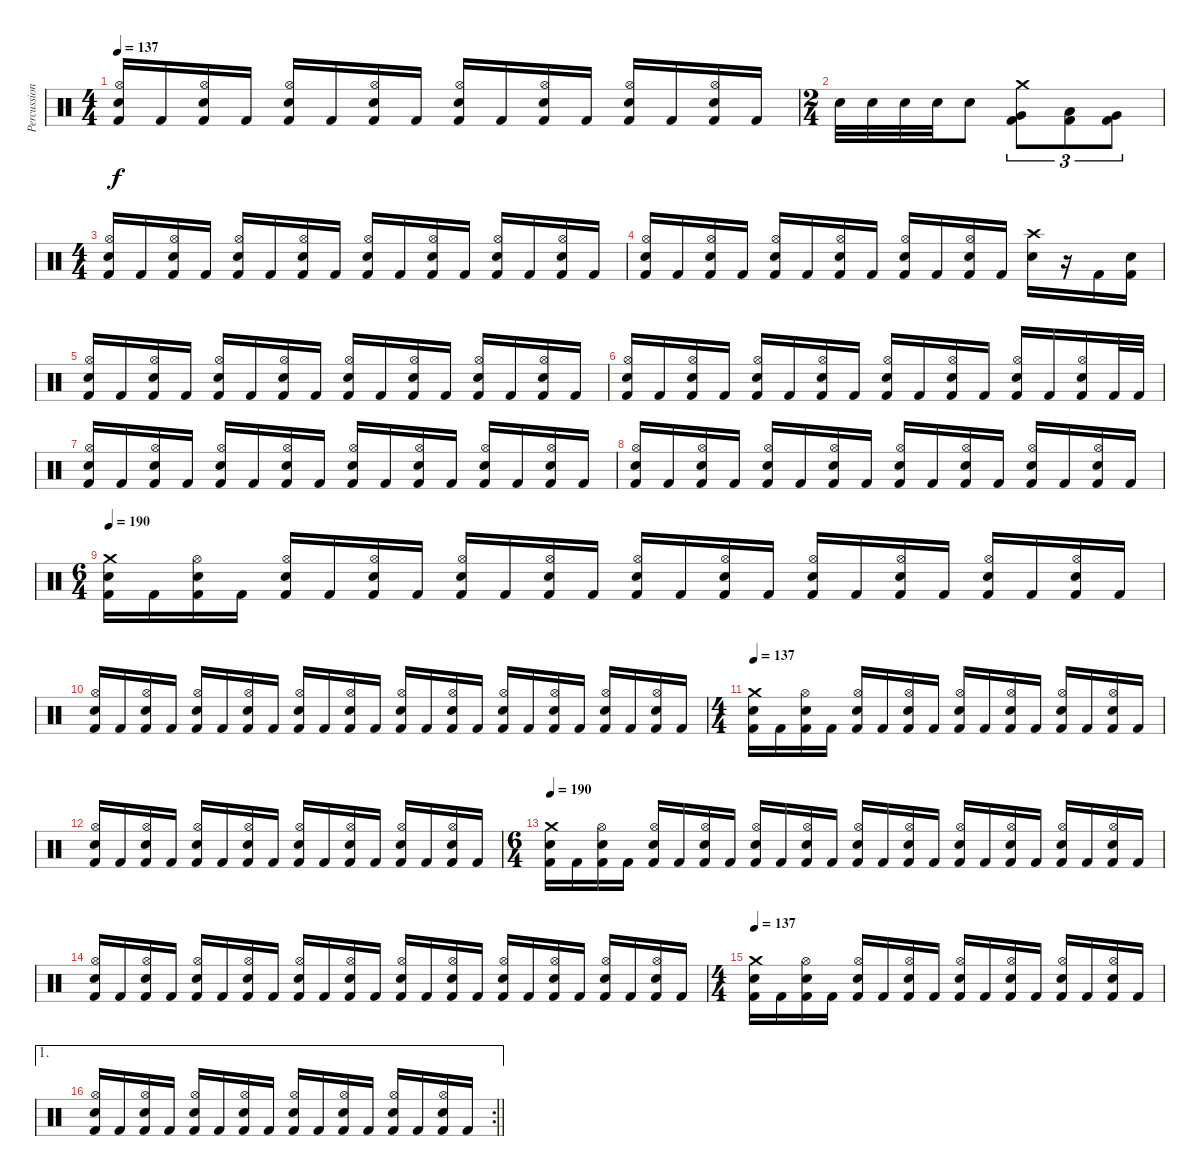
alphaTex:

\track ("Percussion" "Percussion") {instrument percussion}
\staff {score}
\articulation defaults
\ts (4 4)
\tempo 137
\clef neutral
\ks c
("Kick (hit) 2" "Hi-Hat (open)" "Snare (hit) 2").16{dy f} "Kick (hit) 2".16 ("Kick (hit) 2" "Hi-Hat (open)" "Snare (hit) 2").16 "Kick (hit) 2".16 ("Kick (hit) 2" "Hi-Hat (open)" "Snare (hit) 2").16 "Kick (hit) 2".16 ("Kick (hit) 2" "Hi-Hat (open)" "Snare (hit) 2").16 "Kick (hit) 2".16 ("Kick (hit) 2" "Hi-Hat (open)" "Snare (hit) 2").16 "Kick (hit) 2".16 ("Kick (hit) 2" "Hi-Hat (open)" "Snare (hit) 2").16 "Kick (hit) 2".16 ("Kick (hit) 2" "Hi-Hat (open)" "Snare (hit) 2").16 "Kick (hit) 2".16 ("Kick (hit) 2" "Hi-Hat (open)" "Snare (hit) 2").16 "Kick (hit) 2".16 |
\ts (2 4)
"Snare (hit) 2".32 "Snare (hit) 2".32 "Snare (hit) 2".32 "Snare (hit) 2".32 "Snare (hit) 2".8 ("Kick (hit) 2" "Very Low Tom (hit)" "Crash medium (hit)").8{tu (3 2)} ("Kick (hit) 2" "Low Floor Tom (hit)").8{tu (3 2)} ("Kick (hit) 2" "Very Low Tom (hit)").8{tu (3 2)} |
\ts (4 4)
("Kick (hit) 2" "Hi-Hat (open)" "Snare (hit) 2").16 "Kick (hit) 2".16 ("Kick (hit) 2" "Hi-Hat (open)" "Snare (hit) 2").16 "Kick (hit) 2".16 ("Kick (hit) 2" "Hi-Hat (open)" "Snare (hit) 2").16 "Kick (hit) 2".16 ("Kick (hit) 2" "Hi-Hat (open)" "Snare (hit) 2").16 "Kick (hit) 2".16 ("Kick (hit) 2" "Hi-Hat (open)" "Snare (hit) 2").16 "Kick (hit) 2".16 ("Kick (hit) 2" "Hi-Hat (open)" "Snare (hit) 2").16 "Kick (hit) 2".16 ("Kick (hit) 2" "Hi-Hat (open)" "Snare (hit) 2").16 "Kick (hit) 2".16 ("Kick (hit) 2" "Hi-Hat (open)" "Snare (hit) 2").16 "Kick (hit) 2".16 |
("Kick (hit) 2" "Hi-Hat (open)" "Snare (hit) 2").16 "Kick (hit) 2".16 ("Kick (hit) 2" "Hi-Hat (open)" "Snare (hit) 2").16 "Kick (hit) 2".16 ("Kick (hit) 2" "Hi-Hat (open)" "Snare (hit) 2").16 "Kick (hit) 2".16 ("Kick (hit) 2" "Hi-Hat (open)" "Snare (hit) 2").16 "Kick (hit) 2".16 ("Kick (hit) 2" "Hi-Hat (open)" "Snare (hit) 2").16 "Kick (hit) 2".16 ("Kick (hit) 2" "Hi-Hat (open)" "Snare (hit) 2").16 "Kick (hit) 2".16 ("Crash high (hit)" "Snare (hit) 2").16 r.16 "Kick (hit) 2".16 ("Kick (hit) 2" "Snare (hit) 2").16 |
("Kick (hit) 2" "Hi-Hat (open)" "Snare (hit) 2").16 "Kick (hit) 2".16 ("Kick (hit) 2" "Hi-Hat (open)" "Snare (hit) 2").16 "Kick (hit) 2".16 ("Kick (hit) 2" "Hi-Hat (open)" "Snare (hit) 2").16 "Kick (hit) 2".16 ("Kick (hit) 2" "Hi-Hat (open)" "Snare (hit) 2").16 "Kick (hit) 2".16 ("Kick (hit) 2" "Hi-Hat (open)" "Snare (hit) 2").16 "Kick (hit) 2".16 ("Kick (hit) 2" "Hi-Hat (open)" "Snare (hit) 2").16 "Kick (hit) 2".16 ("Kick (hit) 2" "Hi-Hat (open)" "Snare (hit) 2").16 "Kick (hit) 2".16 ("Kick (hit) 2" "Hi-Hat (open)" "Snare (hit) 2").16 "Kick (hit) 2".16 |
("Kick (hit) 2" "Hi-Hat (open)" "Snare (hit) 2").16 "Kick (hit) 2".16 ("Kick (hit) 2" "Hi-Hat (open)" "Snare (hit) 2").16 "Kick (hit) 2".16 ("Kick (hit) 2" "Hi-Hat (open)" "Snare (hit) 2").16 "Kick (hit) 2".16 ("Kick (hit) 2" "Hi-Hat (open)" "Snare (hit) 2").16 "Kick (hit) 2".16 ("Kick (hit) 2" "Hi-Hat (open)" "Snare (hit) 2").16 "Kick (hit) 2".16 ("Kick (hit) 2" "Hi-Hat (open)" "Snare (hit) 2").16 "Kick (hit) 2".16 ("Kick (hit) 2" "Hi-Hat (open)" "Snare (hit) 2").16 "Kick (hit) 2".16 ("Kick (hit) 2" "Hi-Hat (open)" "Snare (hit) 2").16 "Kick (hit) 2".32 "Kick (hit) 2".32 |
("Kick (hit) 2" "Hi-Hat (open)" "Snare (hit) 2").16 "Kick (hit) 2".16 ("Kick (hit) 2" "Hi-Hat (open)" "Snare (hit) 2").16 "Kick (hit) 2".16 ("Kick (hit) 2" "Hi-Hat (open)" "Snare (hit) 2").16 "Kick (hit) 2".16 ("Kick (hit) 2" "Hi-Hat (open)" "Snare (hit) 2").16 "Kick (hit) 2".16 ("Kick (hit) 2" "Hi-Hat (open)" "Snare (hit) 2").16 "Kick (hit) 2".16 ("Kick (hit) 2" "Hi-Hat (open)" "Snare (hit) 2").16 "Kick (hit) 2".16 ("Kick (hit) 2" "Hi-Hat (open)" "Snare (hit) 2").16 "Kick (hit) 2".16 ("Kick (hit) 2" "Hi-Hat (open)" "Snare (hit) 2").16 "Kick (hit) 2".16 |
("Kick (hit) 2" "Hi-Hat (open)" "Snare (hit) 2").16 "Kick (hit) 2".16 ("Kick (hit) 2" "Hi-Hat (open)" "Snare (hit) 2").16 "Kick (hit) 2".16 ("Kick (hit) 2" "Hi-Hat (open)" "Snare (hit) 2").16 "Kick (hit) 2".16 ("Kick (hit) 2" "Hi-Hat (open)" "Snare (hit) 2").16 "Kick (hit) 2".16 ("Kick (hit) 2" "Hi-Hat (open)" "Snare (hit) 2").16 "Kick (hit) 2".16 ("Kick (hit) 2" "Hi-Hat (open)" "Snare (hit) 2").16 "Kick (hit) 2".16 ("Kick (hit) 2" "Hi-Hat (open)" "Snare (hit) 2").16 "Kick (hit) 2".16 ("Kick (hit) 2" "Hi-Hat (open)" "Snare (hit) 2").16 "Kick (hit) 2".16 |
\ts (6 4)
\tempo 190
("Kick (hit) 2" "Crash medium (hit)" "Snare (hit) 2").16 "Kick (hit) 2".16 ("Kick (hit) 2" "Hi-Hat (open)" "Snare (hit) 2").16 "Kick (hit) 2".16 ("Kick (hit) 2" "Hi-Hat (open)" "Snare (hit) 2").16 "Kick (hit) 2".16 ("Kick (hit) 2" "Hi-Hat (open)" "Snare (hit) 2").16 "Kick (hit) 2".16 ("Kick (hit) 2" "Hi-Hat (open)" "Snare (hit) 2").16 "Kick (hit) 2".16 ("Kick (hit) 2" "Hi-Hat (open)" "Snare (hit) 2").16 "Kick (hit) 2".16 ("Kick (hit) 2" "Hi-Hat (open)" "Snare (hit) 2").16 "Kick (hit) 2".16 ("Kick (hit) 2" "Hi-Hat (open)" "Snare (hit) 2").16 "Kick (hit) 2".16 ("Kick (hit) 2" "Hi-Hat (open)" "Snare (hit) 2").16 "Kick (hit) 2".16 ("Kick (hit) 2" "Hi-Hat (open)" "Snare (hit) 2").16 "Kick (hit) 2".16 ("Kick (hit) 2" "Hi-Hat (open)" "Snare (hit) 2").16 "Kick (hit) 2".16 ("Kick (hit) 2" "Hi-Hat (open)" "Snare (hit) 2").16 "Kick (hit) 2".16 |
("Kick (hit) 2" "Hi-Hat (open)" "Snare (hit) 2").16 "Kick (hit) 2".16 ("Kick (hit) 2" "Hi-Hat (open)" "Snare (hit) 2").16 "Kick (hit) 2".16 ("Kick (hit) 2" "Hi-Hat (open)" "Snare (hit) 2").16 "Kick (hit) 2".16 ("Kick (hit) 2" "Hi-Hat (open)" "Snare (hit) 2").16 "Kick (hit) 2".16 ("Kick (hit) 2" "Hi-Hat (open)" "Snare (hit) 2").16 "Kick (hit) 2".16 ("Kick (hit) 2" "Hi-Hat (open)" "Snare (hit) 2").16 "Kick (hit) 2".16 ("Kick (hit) 2" "Hi-Hat (open)" "Snare (hit) 2").16 "Kick (hit) 2".16 ("Kick (hit) 2" "Hi-Hat (open)" "Snare (hit) 2").16 "Kick (hit) 2".16 ("Kick (hit) 2" "Hi-Hat (open)" "Snare (hit) 2").16 "Kick (hit) 2".16 ("Kick (hit) 2" "Hi-Hat (open)" "Snare (hit) 2").16 "Kick (hit) 2".16 ("Kick (hit) 2" "Hi-Hat (open)" "Snare (hit) 2").16 "Kick (hit) 2".16 ("Kick (hit) 2" "Hi-Hat (open)" "Snare (hit) 2").16 "Kick (hit) 2".16 |
\ts (4 4)
\tempo 137
("Kick (hit) 2" "Crash medium (hit)" "Snare (hit) 2").16 "Kick (hit) 2".16 ("Kick (hit) 2" "Hi-Hat (open)" "Snare (hit) 2").16 "Kick (hit) 2".16 ("Kick (hit) 2" "Hi-Hat (open)" "Snare (hit) 2").16 "Kick (hit) 2".16 ("Kick (hit) 2" "Hi-Hat (open)" "Snare (hit) 2").16 "Kick (hit) 2".16 ("Kick (hit) 2" "Hi-Hat (open)" "Snare (hit) 2").16 "Kick (hit) 2".16 ("Kick (hit) 2" "Hi-Hat (open)" "Snare (hit) 2").16 "Kick (hit) 2".16 ("Kick (hit) 2" "Hi-Hat (open)" "Snare (hit) 2").16 "Kick (hit) 2".16 ("Kick (hit) 2" "Hi-Hat (open)" "Snare (hit) 2").16 "Kick (hit) 2".16 |
("Kick (hit) 2" "Hi-Hat (open)" "Snare (hit) 2").16 "Kick (hit) 2".16 ("Kick (hit) 2" "Hi-Hat (open)" "Snare (hit) 2").16 "Kick (hit) 2".16 ("Kick (hit) 2" "Hi-Hat (open)" "Snare (hit) 2").16 "Kick (hit) 2".16 ("Kick (hit) 2" "Hi-Hat (open)" "Snare (hit) 2").16 "Kick (hit) 2".16 ("Kick (hit) 2" "Hi-Hat (open)" "Snare (hit) 2").16 "Kick (hit) 2".16 ("Kick (hit) 2" "Hi-Hat (open)" "Snare (hit) 2").16 "Kick (hit) 2".16 ("Kick (hit) 2" "Hi-Hat (open)" "Snare (hit) 2").16 "Kick (hit) 2".16 ("Kick (hit) 2" "Hi-Hat (open)" "Snare (hit) 2").16 "Kick (hit) 2".16 |
\ts (6 4)
\tempo 190
("Kick (hit) 2" "Crash medium (hit)" "Snare (hit) 2").16 "Kick (hit) 2".16 ("Kick (hit) 2" "Hi-Hat (open)" "Snare (hit) 2").16 "Kick (hit) 2".16 ("Kick (hit) 2" "Hi-Hat (open)" "Snare (hit) 2").16 "Kick (hit) 2".16 ("Kick (hit) 2" "Hi-Hat (open)" "Snare (hit) 2").16 "Kick (hit) 2".16 ("Kick (hit) 2" "Hi-Hat (open)" "Snare (hit) 2").16 "Kick (hit) 2".16 ("Kick (hit) 2" "Hi-Hat (open)" "Snare (hit) 2").16 "Kick (hit) 2".16 ("Kick (hit) 2" "Hi-Hat (open)" "Snare (hit) 2").16 "Kick (hit) 2".16 ("Kick (hit) 2" "Hi-Hat (open)" "Snare (hit) 2").16 "Kick (hit) 2".16 ("Kick (hit) 2" "Hi-Hat (open)" "Snare (hit) 2").16 "Kick (hit) 2".16 ("Kick (hit) 2" "Hi-Hat (open)" "Snare (hit) 2").16 "Kick (hit) 2".16 ("Kick (hit) 2" "Hi-Hat (open)" "Snare (hit) 2").16 "Kick (hit) 2".16 ("Kick (hit) 2" "Hi-Hat (open)" "Snare (hit) 2").16 "Kick (hit) 2".16 |
("Kick (hit) 2" "Hi-Hat (open)" "Snare (hit) 2").16 "Kick (hit) 2".16 ("Kick (hit) 2" "Hi-Hat (open)" "Snare (hit) 2").16 "Kick (hit) 2".16 ("Kick (hit) 2" "Hi-Hat (open)" "Snare (hit) 2").16 "Kick (hit) 2".16 ("Kick (hit) 2" "Hi-Hat (open)" "Snare (hit) 2").16 "Kick (hit) 2".16 ("Kick (hit) 2" "Hi-Hat (open)" "Snare (hit) 2").16 "Kick (hit) 2".16 ("Kick (hit) 2" "Hi-Hat (open)" "Snare (hit) 2").16 "Kick (hit) 2".16 ("Kick (hit) 2" "Hi-Hat (open)" "Snare (hit) 2").16 "Kick (hit) 2".16 ("Kick (hit) 2" "Hi-Hat (open)" "Snare (hit) 2").16 "Kick (hit) 2".16 ("Kick (hit) 2" "Hi-Hat (open)" "Snare (hit) 2").16 "Kick (hit) 2".16 ("Kick (hit) 2" "Hi-Hat (open)" "Snare (hit) 2").16 "Kick (hit) 2".16 ("Kick (hit) 2" "Hi-Hat (open)" "Snare (hit) 2").16 "Kick (hit) 2".16 ("Kick (hit) 2" "Hi-Hat (open)" "Snare (hit) 2").16 "Kick (hit) 2".16 |
\ts (4 4)
\tempo 137
("Kick (hit) 2" "Crash medium (hit)" "Snare (hit) 2").16 "Kick (hit) 2".16 ("Kick (hit) 2" "Hi-Hat (open)" "Snare (hit) 2").16 "Kick (hit) 2".16 ("Kick (hit) 2" "Hi-Hat (open)" "Snare (hit) 2").16 "Kick (hit) 2".16 ("Kick (hit) 2" "Hi-Hat (open)" "Snare (hit) 2").16 "Kick (hit) 2".16 ("Kick (hit) 2" "Hi-Hat (open)" "Snare (hit) 2").16 "Kick (hit) 2".16 ("Kick (hit) 2" "Hi-Hat (open)" "Snare (hit) 2").16 "Kick (hit) 2".16 ("Kick (hit) 2" "Hi-Hat (open)" "Snare (hit) 2").16 "Kick (hit) 2".16 ("Kick (hit) 2" "Hi-Hat (open)" "Snare (hit) 2").16 "Kick (hit) 2".16 |
\ae 1
\rc 2
\barLineRight lightlight
("Kick (hit) 2" "Hi-Hat (open)" "Snare (hit) 2").16 "Kick (hit) 2".16 ("Kick (hit) 2" "Hi-Hat (open)" "Snare (hit) 2").16 "Kick (hit) 2".16 ("Kick (hit) 2" "Hi-Hat (open)" "Snare (hit) 2").16 "Kick (hit) 2".16 ("Kick (hit) 2" "Hi-Hat (open)" "Snare (hit) 2").16 "Kick (hit) 2".16 ("Kick (hit) 2" "Hi-Hat (open)" "Snare (hit) 2").16 "Kick (hit) 2".16 ("Kick (hit) 2" "Hi-Hat (open)" "Snare (hit) 2").16 "Kick (hit) 2".16 ("Kick (hit) 2" "Hi-Hat (open)" "Snare (hit) 2").16 "Kick (hit) 2".16 ("Kick (hit) 2" "Hi-Hat (open)" "Snare (hit) 2").16 "Kick (hit) 2".16
